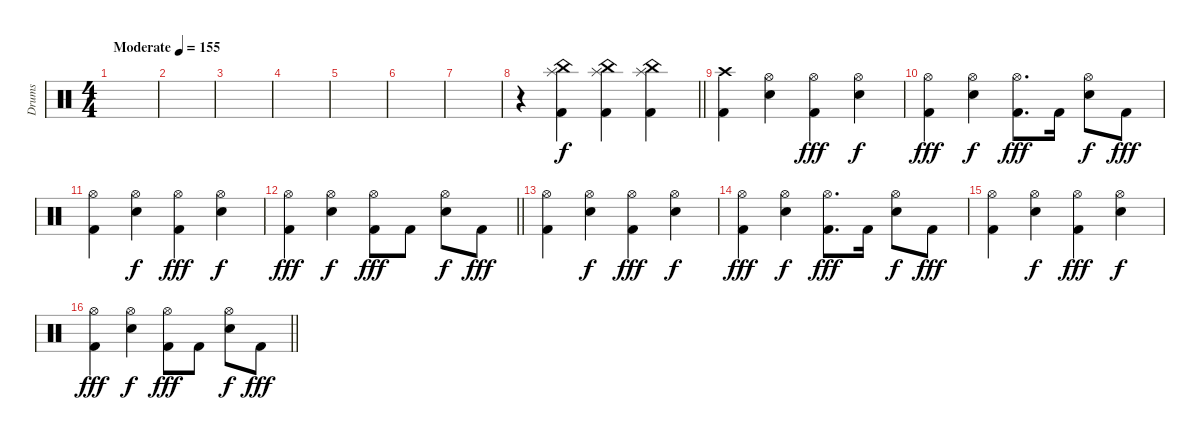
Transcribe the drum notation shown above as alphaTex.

\track ("Drums" "Drums") {instrument percussion}
\staff {score}
\articulation defaults
\ts (4 4)
\tempo (155 "Moderate")
\clef neutral
\ks c
|
|
|
|
|
|
|
\barLineRight lightlight
r.4 ("Splash (hit)" "China (hit)" "Kick (hit) 2").4 ("Splash (hit)" "China (hit)" "Kick (hit) 2").4 ("Splash (hit)" "China (hit)" "Kick (hit) 2").4 |
("Crash high (hit)" "Kick (hit) 2").4 ("Hi-Hat (open)" "Electric Snare (hit)").4{dy f} ("Hi-Hat (open)" "Kick (hit) 2").4{dy fff} ("Hi-Hat (open)" "Electric Snare (hit)").4{dy f} |
("Hi-Hat (open)" "Kick (hit) 2").4{dy fff} ("Hi-Hat (open)" "Electric Snare (hit)").4{dy f} ("Hi-Hat (open)" "Kick (hit) 2").8{d dy fff} "Kick (hit) 2".16 ("Hi-Hat (open)" "Electric Snare (hit)").8{dy f} "Kick (hit) 2".8{dy fff} |
("Hi-Hat (open)" "Kick (hit) 2").4 ("Hi-Hat (open)" "Electric Snare (hit)").4{dy f} ("Hi-Hat (open)" "Kick (hit) 2").4{dy fff} ("Hi-Hat (open)" "Electric Snare (hit)").4{dy f} |
\barLineRight lightlight
("Hi-Hat (open)" "Kick (hit) 2").4{dy fff} ("Hi-Hat (open)" "Electric Snare (hit)").4{dy f} ("Hi-Hat (open)" "Kick (hit) 2").8{dy fff} "Kick (hit) 2".8 ("Hi-Hat (open)" "Electric Snare (hit)").8{dy f} "Kick (hit) 2".8{dy fff} |
("Hi-Hat (open)" "Kick (hit) 2").4 ("Hi-Hat (open)" "Electric Snare (hit)").4{dy f} ("Hi-Hat (open)" "Kick (hit) 2").4{dy fff} ("Hi-Hat (open)" "Electric Snare (hit)").4{dy f} |
("Hi-Hat (open)" "Kick (hit) 2").4{dy fff} ("Hi-Hat (open)" "Electric Snare (hit)").4{dy f} ("Hi-Hat (open)" "Kick (hit) 2").8{d dy fff} "Kick (hit) 2".16 ("Hi-Hat (open)" "Electric Snare (hit)").8{dy f} "Kick (hit) 2".8{dy fff} |
("Hi-Hat (open)" "Kick (hit) 2").4 ("Hi-Hat (open)" "Electric Snare (hit)").4{dy f} ("Hi-Hat (open)" "Kick (hit) 2").4{dy fff} ("Hi-Hat (open)" "Electric Snare (hit)").4{dy f} |
\barLineRight lightlight
("Hi-Hat (open)" "Kick (hit) 2").4{dy fff} ("Hi-Hat (open)" "Electric Snare (hit)").4{dy f} ("Hi-Hat (open)" "Kick (hit) 2").8{dy fff} "Kick (hit) 2".8 ("Hi-Hat (open)" "Electric Snare (hit)").8{dy f} "Kick (hit) 2".8{dy fff}
